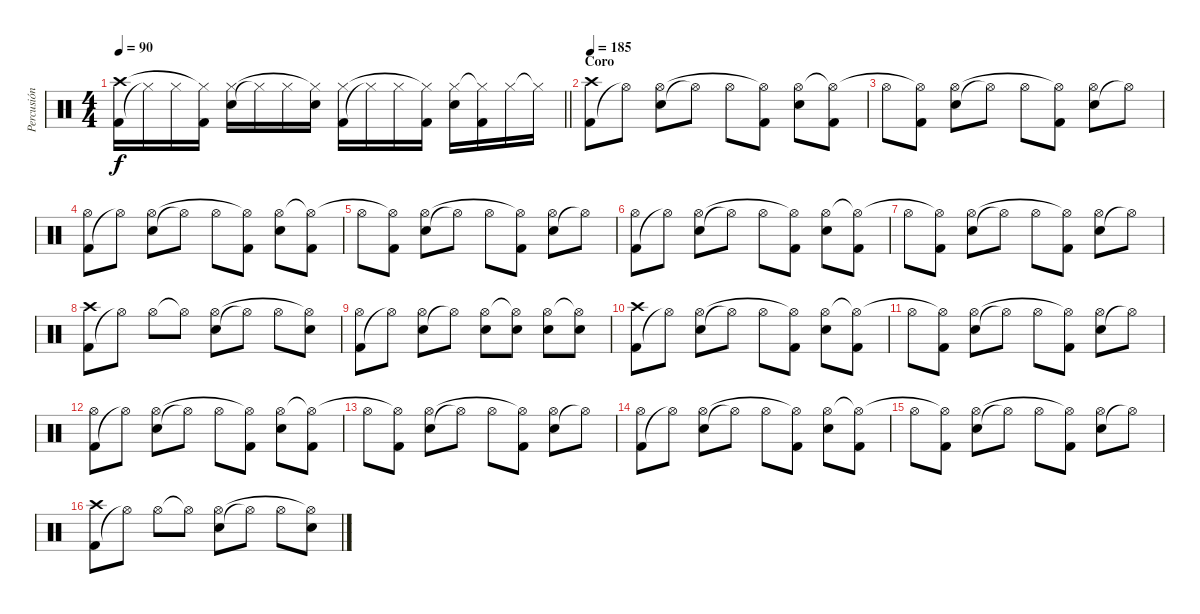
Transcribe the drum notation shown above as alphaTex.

\track ("Percusión" "Percusión") {instrument percussion}
\staff {score}
\articulation defaults
\ts (4 4)
\tempo 90
\clef neutral
\barLineRight lightlight
\ks c
("Kick (hit) 2" "Crash high (hit)").16{dy f} "Hi-Hat (closed)"{t}.16 "Hi-Hat (closed)".16 ("Kick (hit) 2" "Hi-Hat (closed)"{t}).16 ("Snare (hit) 2" "Hi-Hat (closed)").16 "Hi-Hat (closed)"{t}.16 "Hi-Hat (closed)".16 ("Snare (hit) 2" "Hi-Hat (closed)"{t}).16 ("Kick (hit) 2" "Hi-Hat (closed)").16 "Hi-Hat (closed)"{t}.16 "Hi-Hat (closed)".16 ("Kick (hit) 2" "Hi-Hat (closed)"{t}).16 ("Snare (hit) 2" "Hi-Hat (closed)").16 ("Kick (hit) 2" "Hi-Hat (closed)"{t}).16 "Hi-Hat (closed)".16 "Hi-Hat (closed)"{t}.16 |
\section ("" "Coro")
\tempo 185
("Kick (hit) 2" "Crash high (hit)").8 "Hi-Hat (open)"{t}.8 ("Snare (hit) 2" "Hi-Hat (open)").8 "Hi-Hat (open)"{t}.8 "Hi-Hat (open)".8 ("Kick (hit) 2" "Hi-Hat (open)"{t}).8 ("Snare (hit) 2" "Hi-Hat (open)").8 ("Kick (hit) 2" "Hi-Hat (open)"{t}).8 |
"Hi-Hat (open)".8 ("Kick (hit) 2" "Hi-Hat (open)"{t}).8 ("Snare (hit) 2" "Hi-Hat (open)").8 "Hi-Hat (open)"{t}.8 "Hi-Hat (open)".8 ("Kick (hit) 2" "Hi-Hat (open)"{t}).8 ("Snare (hit) 2" "Hi-Hat (open)").8 "Hi-Hat (open)"{t}.8 |
("Kick (hit) 2" "Hi-Hat (open)").8 "Hi-Hat (open)"{t}.8 ("Snare (hit) 2" "Hi-Hat (open)").8 "Hi-Hat (open)"{t}.8 "Hi-Hat (open)".8 ("Kick (hit) 2" "Hi-Hat (open)"{t}).8 ("Snare (hit) 2" "Hi-Hat (open)").8 ("Kick (hit) 2" "Hi-Hat (open)"{t}).8 |
"Hi-Hat (open)".8 ("Kick (hit) 2" "Hi-Hat (open)"{t}).8 ("Snare (hit) 2" "Hi-Hat (open)").8 "Hi-Hat (open)"{t}.8 "Hi-Hat (open)".8 ("Kick (hit) 2" "Hi-Hat (open)"{t}).8 ("Snare (hit) 2" "Hi-Hat (open)").8 "Hi-Hat (open)"{t}.8 |
("Kick (hit) 2" "Hi-Hat (open)").8 "Hi-Hat (open)"{t}.8 ("Snare (hit) 2" "Hi-Hat (open)").8 "Hi-Hat (open)"{t}.8 "Hi-Hat (open)".8 ("Kick (hit) 2" "Hi-Hat (open)"{t}).8 ("Snare (hit) 2" "Hi-Hat (open)").8 ("Kick (hit) 2" "Hi-Hat (open)"{t}).8 |
"Hi-Hat (open)".8 ("Kick (hit) 2" "Hi-Hat (open)"{t}).8 ("Snare (hit) 2" "Hi-Hat (open)").8 "Hi-Hat (open)"{t}.8 "Hi-Hat (open)".8 ("Kick (hit) 2" "Hi-Hat (open)"{t}).8 ("Snare (hit) 2" "Hi-Hat (open)").8 "Hi-Hat (open)"{t}.8 |
("Kick (hit) 2" "Crash high (hit)").8 "Hi-Hat (open)"{t}.8 "Hi-Hat (open)".8 "Hi-Hat (open)"{t}.8 ("Snare (hit) 2" "Hi-Hat (open)").8 "Hi-Hat (open)"{t}.8 "Hi-Hat (open)".8 ("Snare (hit) 2" "Hi-Hat (open)"{t}).8 |
("Kick (hit) 2" "Hi-Hat (open)").8 "Hi-Hat (open)"{t}.8 ("Snare (hit) 2" "Hi-Hat (open)").8 "Hi-Hat (open)"{t}.8 ("Snare (hit) 2" "Hi-Hat (open)").8 ("Snare (hit) 2" "Hi-Hat (open)"{t}).8 ("Snare (hit) 2" "Hi-Hat (open)").8 ("Snare (hit) 2" "Hi-Hat (open)"{t}).8 |
("Kick (hit) 2" "Crash high (hit)").8 "Hi-Hat (open)"{t}.8 ("Snare (hit) 2" "Hi-Hat (open)").8 "Hi-Hat (open)"{t}.8 "Hi-Hat (open)".8 ("Kick (hit) 2" "Hi-Hat (open)"{t}).8 ("Snare (hit) 2" "Hi-Hat (open)").8 ("Kick (hit) 2" "Hi-Hat (open)"{t}).8 |
"Hi-Hat (open)".8 ("Kick (hit) 2" "Hi-Hat (open)"{t}).8 ("Snare (hit) 2" "Hi-Hat (open)").8 "Hi-Hat (open)"{t}.8 "Hi-Hat (open)".8 ("Kick (hit) 2" "Hi-Hat (open)"{t}).8 ("Snare (hit) 2" "Hi-Hat (open)").8 "Hi-Hat (open)"{t}.8 |
("Kick (hit) 2" "Hi-Hat (open)").8 "Hi-Hat (open)"{t}.8 ("Snare (hit) 2" "Hi-Hat (open)").8 "Hi-Hat (open)"{t}.8 "Hi-Hat (open)".8 ("Kick (hit) 2" "Hi-Hat (open)"{t}).8 ("Snare (hit) 2" "Hi-Hat (open)").8 ("Kick (hit) 2" "Hi-Hat (open)"{t}).8 |
"Hi-Hat (open)".8 ("Kick (hit) 2" "Hi-Hat (open)"{t}).8 ("Snare (hit) 2" "Hi-Hat (open)").8 "Hi-Hat (open)"{t}.8 "Hi-Hat (open)".8 ("Kick (hit) 2" "Hi-Hat (open)"{t}).8 ("Snare (hit) 2" "Hi-Hat (open)").8 "Hi-Hat (open)"{t}.8 |
("Kick (hit) 2" "Hi-Hat (open)").8 "Hi-Hat (open)"{t}.8 ("Snare (hit) 2" "Hi-Hat (open)").8 "Hi-Hat (open)"{t}.8 "Hi-Hat (open)".8 ("Kick (hit) 2" "Hi-Hat (open)"{t}).8 ("Snare (hit) 2" "Hi-Hat (open)").8 ("Kick (hit) 2" "Hi-Hat (open)"{t}).8 |
"Hi-Hat (open)".8 ("Kick (hit) 2" "Hi-Hat (open)"{t}).8 ("Snare (hit) 2" "Hi-Hat (open)").8 "Hi-Hat (open)"{t}.8 "Hi-Hat (open)".8 ("Kick (hit) 2" "Hi-Hat (open)"{t}).8 ("Snare (hit) 2" "Hi-Hat (open)").8 "Hi-Hat (open)"{t}.8 |
("Kick (hit) 2" "Crash high (hit)").8 "Hi-Hat (open)"{t}.8 "Hi-Hat (open)".8 "Hi-Hat (open)"{t}.8 ("Snare (hit) 2" "Hi-Hat (open)").8 "Hi-Hat (open)"{t}.8 "Hi-Hat (open)".8 ("Snare (hit) 2" "Hi-Hat (open)"{t}).8
